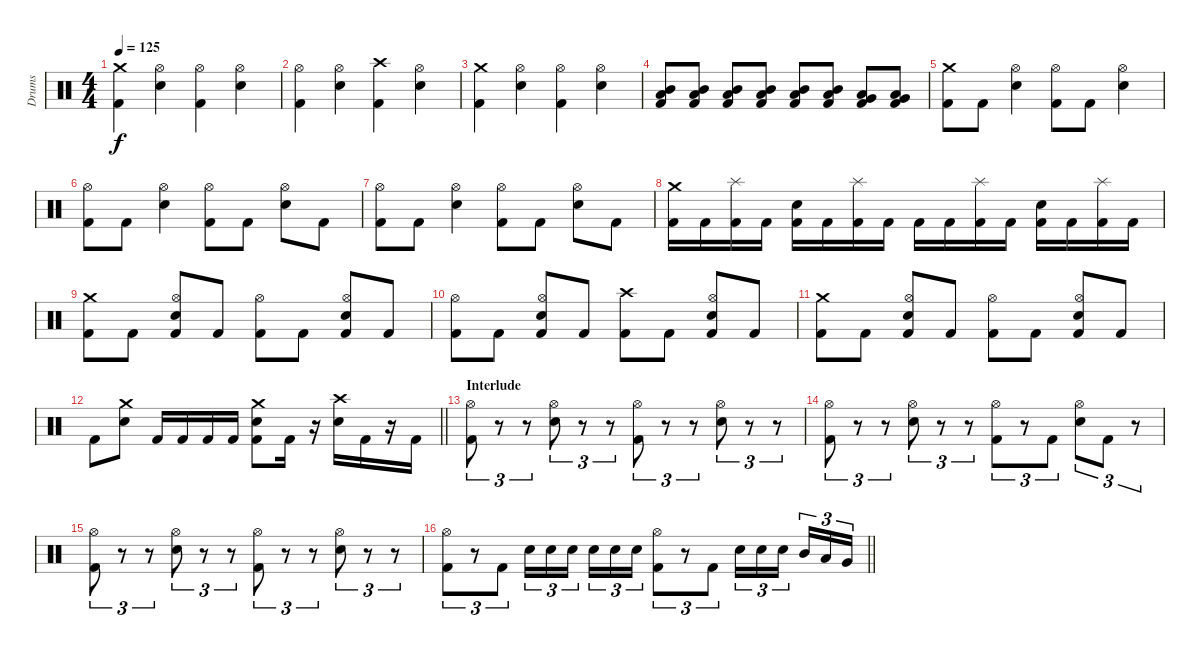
\track ("Drums" "Drums") {instrument percussion}
\staff {score}
\articulation defaults
\ts (4 4)
\tempo 125
\clef neutral
\ks c
("Crash medium (hit)" "Kick (hit) 2").4{dy f} ("Hi-Hat (open)" "Electric Snare (hit)").4 ("Hi-Hat (open)" "Kick (hit) 2").4 ("Hi-Hat (open)" "Electric Snare (hit)").4 |
("Hi-Hat (open)" "Kick (hit) 2").4 ("Hi-Hat (open)" "Electric Snare (hit)").4 ("Crash high (hit)" "Kick (hit) 2").4 ("Hi-Hat (open)" "Electric Snare (hit)").4 |
("Crash medium (hit)" "Kick (hit) 2").4 ("Hi-Hat (open)" "Electric Snare (hit)").4 ("Hi-Hat (open)" "Kick (hit) 2").4 ("Hi-Hat (open)" "Electric Snare (hit)").4 |
("Mid Tom (hit)" "Low Tom (hit)" "Kick (hit) 2").8{volume 7} ("Mid Tom (hit)" "Low Tom (hit)" "Kick (hit) 2").8{volume 16} ("Mid Tom (hit)" "Low Tom (hit)" "Kick (hit) 2").8 ("Mid Tom (hit)" "Low Tom (hit)" "Kick (hit) 2").8 ("Mid Tom (hit)" "Low Tom (hit)" "Kick (hit) 2").8 ("Mid Tom (hit)" "Low Tom (hit)" "Kick (hit) 2").8 ("Low Tom (hit)" "Very Low Tom (hit)" "Kick (hit) 2").8 ("Very Low Tom (hit)" "Low Floor Tom (hit)" "Kick (hit) 2").8 |
("Crash medium (hit)" "Kick (hit) 2").8 "Kick (hit) 2".8 ("Hi-Hat (open)" "Electric Snare (hit)").4 ("Hi-Hat (open)" "Kick (hit) 2").8 "Kick (hit) 2".8 ("Hi-Hat (open)" "Electric Snare (hit)").4 |
("Hi-Hat (open)" "Kick (hit) 2").8 "Kick (hit) 2".8 ("Hi-Hat (open)" "Electric Snare (hit)").4 ("Hi-Hat (open)" "Kick (hit) 2").8 "Kick (hit) 2".8 ("Hi-Hat (open)" "Electric Snare (hit)").8 "Kick (hit) 2".8 |
("Hi-Hat (open)" "Kick (hit) 2").8 "Kick (hit) 2".8 ("Hi-Hat (open)" "Electric Snare (hit)").4 ("Hi-Hat (open)" "Kick (hit) 2").8 "Kick (hit) 2".8 ("Hi-Hat (open)" "Electric Snare (hit)").8 "Kick (hit) 2".8 |
("Crash medium (hit)" "Kick (hit) 2").16 "Kick (hit) 2".16 ("Splash (hit)" "Kick (hit) 2").16 "Kick (hit) 2".16 ("Electric Snare (hit)" "Kick (hit) 2").16 "Kick (hit) 2".16 ("Splash (hit)" "Kick (hit) 2").16 "Kick (hit) 2".16 "Kick (hit) 2".16 "Kick (hit) 2".16 ("Splash (hit)" "Kick (hit) 2").16 "Kick (hit) 2".16 ("Electric Snare (hit)" "Kick (hit) 2").16 "Kick (hit) 2".16 ("Splash (hit)" "Kick (hit) 2").16 "Kick (hit) 2".16 |
("Crash medium (hit)" "Kick (hit) 2").8 "Kick (hit) 2".8 ("Hi-Hat (open)" "Electric Snare (hit)" "Kick (hit) 2").8 "Kick (hit) 2".8 ("Hi-Hat (open)" "Kick (hit) 2").8 "Kick (hit) 2".8 ("Hi-Hat (open)" "Electric Snare (hit)" "Kick (hit) 2").8 "Kick (hit) 2".8 |
("Hi-Hat (open)" "Kick (hit) 2").8 "Kick (hit) 2".8 ("Hi-Hat (open)" "Electric Snare (hit)" "Kick (hit) 2").8 "Kick (hit) 2".8 ("Crash high (hit)" "Kick (hit) 2").8 "Kick (hit) 2".8 ("Hi-Hat (open)" "Electric Snare (hit)" "Kick (hit) 2").8 "Kick (hit) 2".8 |
("Crash medium (hit)" "Kick (hit) 2").8 "Kick (hit) 2".8 ("Hi-Hat (open)" "Electric Snare (hit)" "Kick (hit) 2").8 "Kick (hit) 2".8 ("Hi-Hat (open)" "Kick (hit) 2").8 "Kick (hit) 2".8 ("Hi-Hat (open)" "Electric Snare (hit)" "Kick (hit) 2").8 "Kick (hit) 2".8 |
\barLineRight lightlight "Kick (hit) 2".8
("Crash medium (hit)" "Electric Snare (hit)").8 "Kick (hit) 2".16 "Kick (hit) 2".16 "Kick (hit) 2".16 "Kick (hit) 2".16 ("Crash medium (hit)" "Electric Snare (hit)" "Kick (hit) 2").8 "Kick (hit) 2".16 r.16 ("Crash high (hit)" "Electric Snare (hit)").16 "Kick (hit) 2".16 r.16 "Kick (hit) 2".16 |
\section ("" "Interlude")
("Hi-Hat (open)" "Kick (hit) 2").8{tu (3 2)} r.8{tu (3 2)} r.8{tu (3 2)} ("Hi-Hat (open)" "Electric Snare (hit)").8{tu (3 2)} r.8{tu (3 2)} r.8{tu (3 2)} ("Hi-Hat (open)" "Kick (hit) 2").8{tu (3 2)} r.8{tu (3 2)} r.8{tu (3 2)} ("Hi-Hat (open)" "Electric Snare (hit)").8{tu (3 2)} r.8{tu (3 2)} r.8{tu (3 2)} |
("Hi-Hat (open)" "Kick (hit) 2").8{tu (3 2)} r.8{tu (3 2)} r.8{tu (3 2)} ("Hi-Hat (open)" "Electric Snare (hit)").8{tu (3 2)} r.8{tu (3 2)} r.8{tu (3 2)} ("Hi-Hat (open)" "Kick (hit) 2").8{tu (3 2)} r.8{tu (3 2)} "Kick (hit) 2".8{tu (3 2)} ("Hi-Hat (open)" "Electric Snare (hit)").8{tu (3 2)} "Kick (hit) 2".8{tu (3 2)} r.8{tu (3 2)} |
("Hi-Hat (open)" "Kick (hit) 2").8{tu (3 2)} r.8{tu (3 2)} r.8{tu (3 2)} ("Hi-Hat (open)" "Electric Snare (hit)").8{tu (3 2)} r.8{tu (3 2)} r.8{tu (3 2)} ("Hi-Hat (open)" "Kick (hit) 2").8{tu (3 2)} r.8{tu (3 2)} r.8{tu (3 2)} ("Hi-Hat (open)" "Electric Snare (hit)").8{tu (3 2)} r.8{tu (3 2)} r.8{tu (3 2)} |
\barLineRight lightlight
("Hi-Hat (open)" "Kick (hit) 2").8{tu (3 2)} r.8{tu (3 2)} "Kick (hit) 2".8{tu (3 2)} "Electric Snare (hit)".16{tu (3 2)} "Electric Snare (hit)".16{tu (3 2)} "Electric Snare (hit)".16{tu (3 2) beam splitsecondary} "Electric Snare (hit)".16{tu (3 2)} "Electric Snare (hit)".16{tu (3 2)} "Electric Snare (hit)".16{tu (3 2)} ("Hi-Hat (open)" "Kick (hit) 2").8{tu (3 2)} r.8{tu (3 2)} "Kick (hit) 2".8{tu (3 2)} "Electric Snare (hit)".16{tu (3 2)} "Electric Snare (hit)".16{tu (3 2)} "Electric Snare (hit)".16{tu (3 2) beam splitsecondary} "Mid Tom (hit)".16{tu (3 2)} "Low Tom (hit)".16{tu (3 2)} "Very Low Tom (hit)".16{tu (3 2)}
